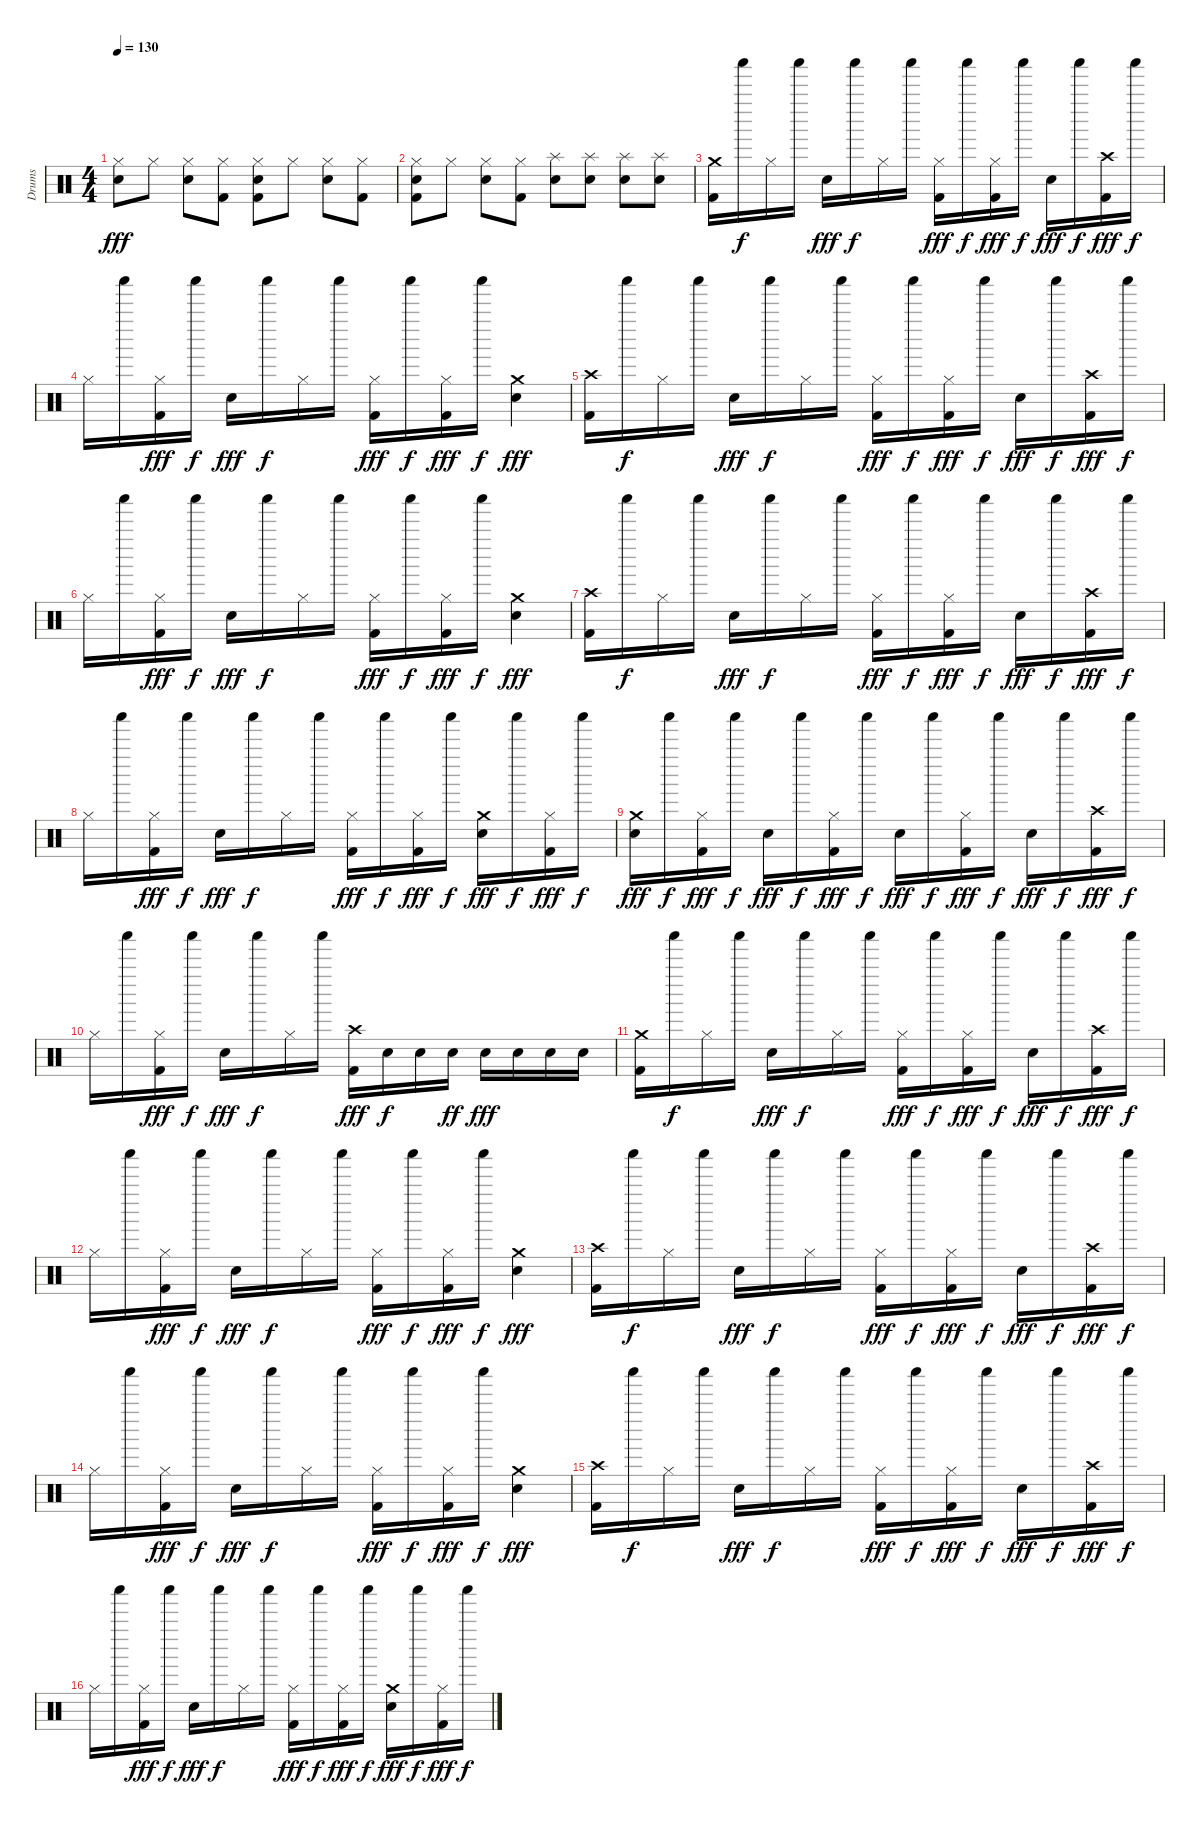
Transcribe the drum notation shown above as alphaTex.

\track ("Drums" "Drums") {instrument percussion}
\staff {score}
\articulation defaults
\ts (4 4)
\tempo 130
\clef neutral
\ks c
("Hi-Hat (closed)" "Snare (hit) 2").8{dy fff} "Hi-Hat (closed)".8 ("Hi-Hat (closed)" "Snare (hit) 2").8 ("Hi-Hat (closed)" "Kick (hit) 2").8 ("Hi-Hat (closed)" "Snare (hit) 2" "Kick (hit) 2").8 "Hi-Hat (closed)".8 ("Hi-Hat (closed)" "Snare (hit) 2").8 ("Hi-Hat (closed)" "Kick (hit) 2").8 |
("Hi-Hat (closed)" "Snare (hit) 2" "Kick (hit) 2").8 "Hi-Hat (closed)".8 ("Hi-Hat (closed)" "Snare (hit) 2").8 ("Hi-Hat (closed)" "Kick (hit) 2").8 ("Splash (hit)" "Snare (hit) 2").8 ("Splash (hit)" "Snare (hit) 2").8 ("Splash (hit)" "Snare (hit) 2").8 ("Splash (hit)" "Snare (hit) 2").8 |
("Crash medium (hit)" "Kick (hit) 2").16 "Shaker (hit)".16{dy f} "Hi-Hat (closed)".16 "Shaker (hit)".16 "Snare (hit) 2".16{dy fff} "Shaker (hit)".16{dy f} "Hi-Hat (closed)".16 "Shaker (hit)".16 ("Hi-Hat (closed)" "Kick (hit) 2").16{dy fff} "Shaker (hit)".16{dy f} ("Hi-Hat (closed)" "Kick (hit) 2").16{dy fff} "Shaker (hit)".16{dy f} "Snare (hit) 2".16{dy fff} "Shaker (hit)".16{dy f} ("Crash high (hit)" "Kick (hit) 2").16{dy fff} "Shaker (hit)".16{dy f} |
"Hi-Hat (closed)".16 "Shaker (hit)".16 ("Hi-Hat (closed)" "Kick (hit) 2").16{dy fff} "Shaker (hit)".16{dy f} "Snare (hit) 2".16{dy fff} "Shaker (hit)".16{dy f} "Hi-Hat (closed)".16 "Shaker (hit)".16 ("Hi-Hat (closed)" "Kick (hit) 2").16{dy fff} "Shaker (hit)".16{dy f} ("Hi-Hat (closed)" "Kick (hit) 2").16{dy fff} "Shaker (hit)".16{dy f} ("Crash medium (hit)" "Snare (hit) 2").4{dy fff} |
("Crash high (hit)" "Kick (hit) 2").16 "Shaker (hit)".16{dy f} "Hi-Hat (closed)".16 "Shaker (hit)".16 "Snare (hit) 2".16{dy fff} "Shaker (hit)".16{dy f} "Hi-Hat (closed)".16 "Shaker (hit)".16 ("Hi-Hat (closed)" "Kick (hit) 2").16{dy fff} "Shaker (hit)".16{dy f} ("Hi-Hat (closed)" "Kick (hit) 2").16{dy fff} "Shaker (hit)".16{dy f} "Snare (hit) 2".16{dy fff} "Shaker (hit)".16{dy f} ("Crash high (hit)" "Kick (hit) 2").16{dy fff} "Shaker (hit)".16{dy f} |
"Hi-Hat (closed)".16 "Shaker (hit)".16 ("Hi-Hat (closed)" "Kick (hit) 2").16{dy fff} "Shaker (hit)".16{dy f} "Snare (hit) 2".16{dy fff} "Shaker (hit)".16{dy f} "Hi-Hat (closed)".16 "Shaker (hit)".16 ("Hi-Hat (closed)" "Kick (hit) 2").16{dy fff} "Shaker (hit)".16{dy f} ("Hi-Hat (closed)" "Kick (hit) 2").16{dy fff} "Shaker (hit)".16{dy f} ("Crash medium (hit)" "Snare (hit) 2").4{dy fff} |
("Crash high (hit)" "Kick (hit) 2").16 "Shaker (hit)".16{dy f} "Hi-Hat (closed)".16 "Shaker (hit)".16 "Snare (hit) 2".16{dy fff} "Shaker (hit)".16{dy f} "Hi-Hat (closed)".16 "Shaker (hit)".16 ("Hi-Hat (closed)" "Kick (hit) 2").16{dy fff} "Shaker (hit)".16{dy f} ("Hi-Hat (closed)" "Kick (hit) 2").16{dy fff} "Shaker (hit)".16{dy f} "Snare (hit) 2".16{dy fff} "Shaker (hit)".16{dy f} ("Crash high (hit)" "Kick (hit) 2").16{dy fff} "Shaker (hit)".16{dy f} |
"Hi-Hat (closed)".16 "Shaker (hit)".16 ("Hi-Hat (closed)" "Kick (hit) 2").16{dy fff} "Shaker (hit)".16{dy f} "Snare (hit) 2".16{dy fff} "Shaker (hit)".16{dy f} "Hi-Hat (closed)".16 "Shaker (hit)".16 ("Hi-Hat (closed)" "Kick (hit) 2").16{dy fff} "Shaker (hit)".16{dy f} ("Hi-Hat (closed)" "Kick (hit) 2").16{dy fff} "Shaker (hit)".16{dy f} ("Crash medium (hit)" "Snare (hit) 2").16{dy fff} "Shaker (hit)".16{dy f} ("Hi-Hat (closed)" "Kick (hit) 2").16{dy fff} "Shaker (hit)".16{dy f} |
("Crash medium (hit)" "Snare (hit) 2").16{dy fff} "Shaker (hit)".16{dy f} ("Hi-Hat (closed)" "Kick (hit) 2").16{dy fff} "Shaker (hit)".16{dy f} "Snare (hit) 2".16{dy fff} "Shaker (hit)".16{dy f} ("Hi-Hat (closed)" "Kick (hit) 2").16{dy fff} "Shaker (hit)".16{dy f} "Snare (hit) 2".16{dy fff} "Shaker (hit)".16{dy f} ("Hi-Hat (closed)" "Kick (hit) 2").16{dy fff} "Shaker (hit)".16{dy f} "Snare (hit) 2".16{dy fff} "Shaker (hit)".16{dy f} ("Crash high (hit)" "Kick (hit) 2").16{dy fff} "Shaker (hit)".16{dy f} |
"Hi-Hat (closed)".16 "Shaker (hit)".16 ("Hi-Hat (closed)" "Kick (hit) 2").16{dy fff} "Shaker (hit)".16{dy f} "Snare (hit) 2".16{dy fff} "Shaker (hit)".16{dy f} "Hi-Hat (closed)".16 "Shaker (hit)".16 ("Crash high (hit)" "Kick (hit) 2").16{dy fff} "Snare (hit) 2".16{dy f} "Snare (hit) 2".16 "Snare (hit) 2".16{dy ff} "Snare (hit) 2".16{dy fff} "Snare (hit) 2".16 "Snare (hit) 2".16 "Snare (hit) 2".16 |
("Crash medium (hit)" "Kick (hit) 2").16 "Shaker (hit)".16{dy f} "Hi-Hat (closed)".16 "Shaker (hit)".16 "Snare (hit) 2".16{dy fff} "Shaker (hit)".16{dy f} "Hi-Hat (closed)".16 "Shaker (hit)".16 ("Hi-Hat (closed)" "Kick (hit) 2").16{dy fff} "Shaker (hit)".16{dy f} ("Hi-Hat (closed)" "Kick (hit) 2").16{dy fff} "Shaker (hit)".16{dy f} "Snare (hit) 2".16{dy fff} "Shaker (hit)".16{dy f} ("Crash high (hit)" "Kick (hit) 2").16{dy fff} "Shaker (hit)".16{dy f} |
"Hi-Hat (closed)".16 "Shaker (hit)".16 ("Hi-Hat (closed)" "Kick (hit) 2").16{dy fff} "Shaker (hit)".16{dy f} "Snare (hit) 2".16{dy fff} "Shaker (hit)".16{dy f} "Hi-Hat (closed)".16 "Shaker (hit)".16 ("Hi-Hat (closed)" "Kick (hit) 2").16{dy fff} "Shaker (hit)".16{dy f} ("Hi-Hat (closed)" "Kick (hit) 2").16{dy fff} "Shaker (hit)".16{dy f} ("Crash medium (hit)" "Snare (hit) 2").4{dy fff} |
("Crash high (hit)" "Kick (hit) 2").16 "Shaker (hit)".16{dy f} "Hi-Hat (closed)".16 "Shaker (hit)".16 "Snare (hit) 2".16{dy fff} "Shaker (hit)".16{dy f} "Hi-Hat (closed)".16 "Shaker (hit)".16 ("Hi-Hat (closed)" "Kick (hit) 2").16{dy fff} "Shaker (hit)".16{dy f} ("Hi-Hat (closed)" "Kick (hit) 2").16{dy fff} "Shaker (hit)".16{dy f} "Snare (hit) 2".16{dy fff} "Shaker (hit)".16{dy f} ("Crash high (hit)" "Kick (hit) 2").16{dy fff} "Shaker (hit)".16{dy f} |
"Hi-Hat (closed)".16 "Shaker (hit)".16 ("Hi-Hat (closed)" "Kick (hit) 2").16{dy fff} "Shaker (hit)".16{dy f} "Snare (hit) 2".16{dy fff} "Shaker (hit)".16{dy f} "Hi-Hat (closed)".16 "Shaker (hit)".16 ("Hi-Hat (closed)" "Kick (hit) 2").16{dy fff} "Shaker (hit)".16{dy f} ("Hi-Hat (closed)" "Kick (hit) 2").16{dy fff} "Shaker (hit)".16{dy f} ("Crash medium (hit)" "Snare (hit) 2").4{dy fff} |
("Crash high (hit)" "Kick (hit) 2").16 "Shaker (hit)".16{dy f} "Hi-Hat (closed)".16 "Shaker (hit)".16 "Snare (hit) 2".16{dy fff} "Shaker (hit)".16{dy f} "Hi-Hat (closed)".16 "Shaker (hit)".16 ("Hi-Hat (closed)" "Kick (hit) 2").16{dy fff} "Shaker (hit)".16{dy f} ("Hi-Hat (closed)" "Kick (hit) 2").16{dy fff} "Shaker (hit)".16{dy f} "Snare (hit) 2".16{dy fff} "Shaker (hit)".16{dy f} ("Crash high (hit)" "Kick (hit) 2").16{dy fff} "Shaker (hit)".16{dy f} |
"Hi-Hat (closed)".16 "Shaker (hit)".16 ("Hi-Hat (closed)" "Kick (hit) 2").16{dy fff} "Shaker (hit)".16{dy f} "Snare (hit) 2".16{dy fff} "Shaker (hit)".16{dy f} "Hi-Hat (closed)".16 "Shaker (hit)".16 ("Hi-Hat (closed)" "Kick (hit) 2").16{dy fff} "Shaker (hit)".16{dy f} ("Hi-Hat (closed)" "Kick (hit) 2").16{dy fff} "Shaker (hit)".16{dy f} ("Crash medium (hit)" "Snare (hit) 2").16{dy fff} "Shaker (hit)".16{dy f} ("Hi-Hat (closed)" "Kick (hit) 2").16{dy fff} "Shaker (hit)".16{dy f}
